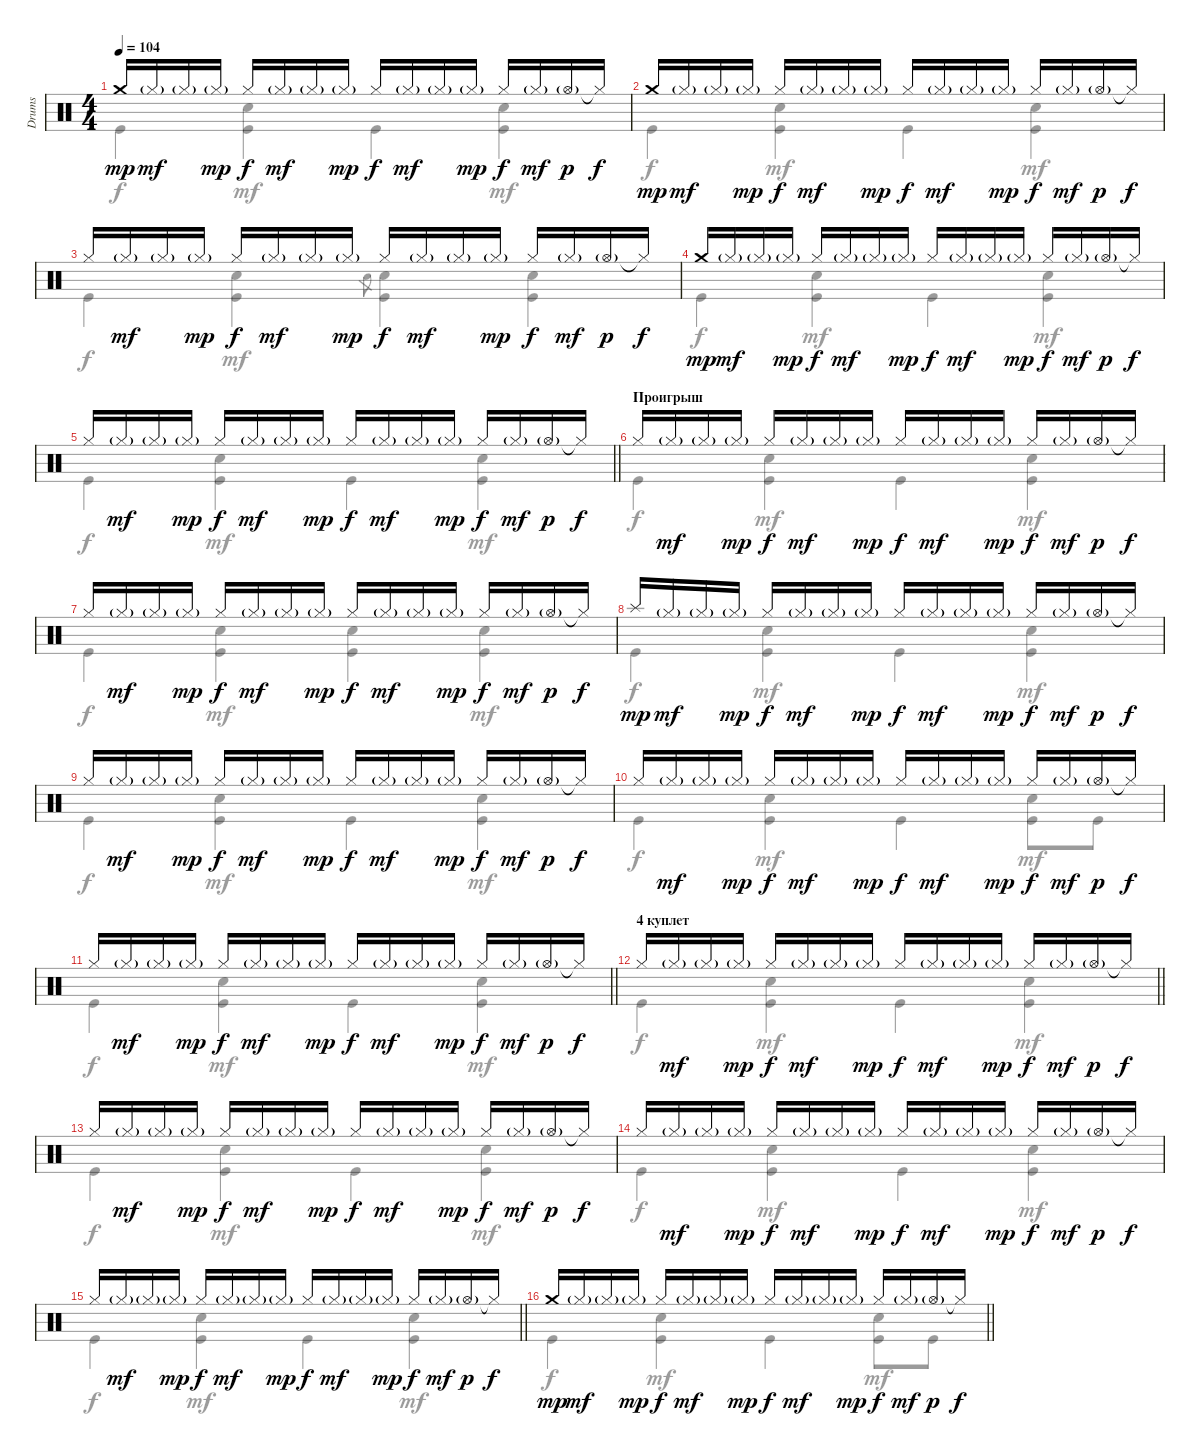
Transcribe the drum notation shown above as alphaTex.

\track ("Drums" "Drums") {instrument percussion}
\staff {score}
\articulation defaults
\voice
\ts (4 4)
\tempo 104
\clef neutral
\ks c "Crash medium (hit)".16{dy mp} "Hi-Hat (closed)"{g}.16{dy mf} "Hi-Hat (closed)"{g}.16 "Hi-Hat (closed)"{g}.16{dy mp} "Hi-Hat (closed)".16{dy f} "Hi-Hat (closed)"{g}.16{dy mf} "Hi-Hat (closed)"{g}.16 "Hi-Hat (closed)"{g}.16{dy mp} "Hi-Hat (closed)".16{dy f} "Hi-Hat (closed)"{g}.16{dy mf} "Hi-Hat (closed)"{g}.16 "Hi-Hat (closed)"{g}.16{dy mp} "Hi-Hat (closed)".16{dy f} "Hi-Hat (closed)"{g}.16{dy mf} "Hi-Hat (open)"{g}.16{dy p} "Hi-Hat (closed)"{t}.16{dy f}
|
"Crash medium (hit)".16{dy mp} "Hi-Hat (closed)"{g}.16{dy mf} "Hi-Hat (closed)"{g}.16 "Hi-Hat (closed)"{g}.16{dy mp} "Hi-Hat (closed)".16{dy f} "Hi-Hat (closed)"{g}.16{dy mf} "Hi-Hat (closed)"{g}.16 "Hi-Hat (closed)"{g}.16{dy mp} "Hi-Hat (closed)".16{dy f} "Hi-Hat (closed)"{g}.16{dy mf} "Hi-Hat (closed)"{g}.16 "Hi-Hat (closed)"{g}.16{dy mp} "Hi-Hat (closed)".16{dy f} "Hi-Hat (closed)"{g}.16{dy mf} "Hi-Hat (open)"{g}.16{dy p} "Hi-Hat (closed)"{t}.16{dy f} |
"Hi-Hat (closed)".16 "Hi-Hat (closed)"{g}.16{dy mf} "Hi-Hat (closed)"{g}.16 "Hi-Hat (closed)"{g}.16{dy mp} "Hi-Hat (closed)".16{dy f} "Hi-Hat (closed)"{g}.16{dy mf} "Hi-Hat (closed)"{g}.16 "Hi-Hat (closed)"{g}.16{dy mp} "Hi-Hat (closed)".16{dy f} "Hi-Hat (closed)"{g}.16{dy mf} "Hi-Hat (closed)"{g}.16 "Hi-Hat (closed)"{g}.16{dy mp} "Hi-Hat (closed)".16{dy f} "Hi-Hat (closed)"{g}.16{dy mf} "Hi-Hat (open)"{g}.16{dy p} "Hi-Hat (closed)"{t}.16{dy f} |
"Crash medium (hit)".16{dy mp} "Hi-Hat (closed)"{g}.16{dy mf} "Hi-Hat (closed)"{g}.16 "Hi-Hat (closed)"{g}.16{dy mp} "Hi-Hat (closed)".16{dy f} "Hi-Hat (closed)"{g}.16{dy mf} "Hi-Hat (closed)"{g}.16 "Hi-Hat (closed)"{g}.16{dy mp} "Hi-Hat (closed)".16{dy f} "Hi-Hat (closed)"{g}.16{dy mf} "Hi-Hat (closed)"{g}.16 "Hi-Hat (closed)"{g}.16{dy mp} "Hi-Hat (closed)".16{dy f} "Hi-Hat (closed)"{g}.16{dy mf} "Hi-Hat (open)"{g}.16{dy p} "Hi-Hat (closed)"{t}.16{dy f} |
\barLineRight lightlight "Hi-Hat (closed)".16 "Hi-Hat (closed)"{g}.16{dy mf} "Hi-Hat (closed)"{g}.16 "Hi-Hat (closed)"{g}.16{dy mp} "Hi-Hat (closed)".16{dy f} "Hi-Hat (closed)"{g}.16{dy mf} "Hi-Hat (closed)"{g}.16 "Hi-Hat (closed)"{g}.16{dy mp} "Hi-Hat (closed)".16{dy f} "Hi-Hat (closed)"{g}.16{dy mf} "Hi-Hat (closed)"{g}.16 "Hi-Hat (closed)"{g}.16{dy mp} "Hi-Hat (closed)".16{dy f} "Hi-Hat (closed)"{g}.16{dy mf} "Hi-Hat (open)"{g}.16{dy p} "Hi-Hat (closed)"{t}.16{dy f}
|
\section ("" "Проигрыш")
"Hi-Hat (closed)".16 "Hi-Hat (closed)"{g}.16{dy mf} "Hi-Hat (closed)"{g}.16 "Hi-Hat (closed)"{g}.16{dy mp} "Hi-Hat (closed)".16{dy f} "Hi-Hat (closed)"{g}.16{dy mf} "Hi-Hat (closed)"{g}.16 "Hi-Hat (closed)"{g}.16{dy mp} "Hi-Hat (closed)".16{dy f} "Hi-Hat (closed)"{g}.16{dy mf} "Hi-Hat (closed)"{g}.16 "Hi-Hat (closed)"{g}.16{dy mp} "Hi-Hat (closed)".16{dy f} "Hi-Hat (closed)"{g}.16{dy mf} "Hi-Hat (open)"{g}.16{dy p} "Hi-Hat (closed)"{t}.16{dy f} |
"Hi-Hat (closed)".16 "Hi-Hat (closed)"{g}.16{dy mf} "Hi-Hat (closed)"{g}.16 "Hi-Hat (closed)"{g}.16{dy mp} "Hi-Hat (closed)".16{dy f} "Hi-Hat (closed)"{g}.16{dy mf} "Hi-Hat (closed)"{g}.16 "Hi-Hat (closed)"{g}.16{dy mp} "Hi-Hat (closed)".16{dy f} "Hi-Hat (closed)"{g}.16{dy mf} "Hi-Hat (closed)"{g}.16 "Hi-Hat (closed)"{g}.16{dy mp} "Hi-Hat (closed)".16{dy f} "Hi-Hat (closed)"{g}.16{dy mf} "Hi-Hat (open)"{g}.16{dy p} "Hi-Hat (closed)"{t}.16{dy f} |
"Splash (hit)".16{dy mp} "Hi-Hat (closed)"{g}.16{dy mf} "Hi-Hat (closed)"{g}.16 "Hi-Hat (closed)"{g}.16{dy mp} "Hi-Hat (closed)".16{dy f} "Hi-Hat (closed)"{g}.16{dy mf} "Hi-Hat (closed)"{g}.16 "Hi-Hat (closed)"{g}.16{dy mp} "Hi-Hat (closed)".16{dy f} "Hi-Hat (closed)"{g}.16{dy mf} "Hi-Hat (closed)"{g}.16 "Hi-Hat (closed)"{g}.16{dy mp} "Hi-Hat (closed)".16{dy f} "Hi-Hat (closed)"{g}.16{dy mf} "Hi-Hat (open)"{g}.16{dy p} "Hi-Hat (closed)"{t}.16{dy f} |
"Hi-Hat (closed)".16 "Hi-Hat (closed)"{g}.16{dy mf} "Hi-Hat (closed)"{g}.16 "Hi-Hat (closed)"{g}.16{dy mp} "Hi-Hat (closed)".16{dy f} "Hi-Hat (closed)"{g}.16{dy mf} "Hi-Hat (closed)"{g}.16 "Hi-Hat (closed)"{g}.16{dy mp} "Hi-Hat (closed)".16{dy f} "Hi-Hat (closed)"{g}.16{dy mf} "Hi-Hat (closed)"{g}.16 "Hi-Hat (closed)"{g}.16{dy mp} "Hi-Hat (closed)".16{dy f} "Hi-Hat (closed)"{g}.16{dy mf} "Hi-Hat (open)"{g}.16{dy p} "Hi-Hat (closed)"{t}.16{dy f} |
"Hi-Hat (closed)".16 "Hi-Hat (closed)"{g}.16{dy mf} "Hi-Hat (closed)"{g}.16 "Hi-Hat (closed)"{g}.16{dy mp} "Hi-Hat (closed)".16{dy f} "Hi-Hat (closed)"{g}.16{dy mf} "Hi-Hat (closed)"{g}.16 "Hi-Hat (closed)"{g}.16{dy mp} "Hi-Hat (closed)".16{dy f} "Hi-Hat (closed)"{g}.16{dy mf} "Hi-Hat (closed)"{g}.16 "Hi-Hat (closed)"{g}.16{dy mp} "Hi-Hat (closed)".16{dy f} "Hi-Hat (closed)"{g}.16{dy mf} "Hi-Hat (open)"{g}.16{dy p} "Hi-Hat (closed)"{t}.16{dy f} |
\barLineRight lightlight "Hi-Hat (closed)".16 "Hi-Hat (closed)"{g}.16{dy mf} "Hi-Hat (closed)"{g}.16 "Hi-Hat (closed)"{g}.16{dy mp} "Hi-Hat (closed)".16{dy f} "Hi-Hat (closed)"{g}.16{dy mf} "Hi-Hat (closed)"{g}.16 "Hi-Hat (closed)"{g}.16{dy mp} "Hi-Hat (closed)".16{dy f} "Hi-Hat (closed)"{g}.16{dy mf} "Hi-Hat (closed)"{g}.16 "Hi-Hat (closed)"{g}.16{dy mp} "Hi-Hat (closed)".16{dy f} "Hi-Hat (closed)"{g}.16{dy mf} "Hi-Hat (open)"{g}.16{dy p} "Hi-Hat (closed)"{t}.16{dy f}
|
\section ("" "4 куплет")
\barLineRight lightlight "Hi-Hat (closed)".16 "Hi-Hat (closed)"{g}.16{dy mf} "Hi-Hat (closed)"{g}.16 "Hi-Hat (closed)"{g}.16{dy mp} "Hi-Hat (closed)".16{dy f} "Hi-Hat (closed)"{g}.16{dy mf} "Hi-Hat (closed)"{g}.16 "Hi-Hat (closed)"{g}.16{dy mp} "Hi-Hat (closed)".16{dy f} "Hi-Hat (closed)"{g}.16{dy mf} "Hi-Hat (closed)"{g}.16 "Hi-Hat (closed)"{g}.16{dy mp} "Hi-Hat (closed)".16{dy f} "Hi-Hat (closed)"{g}.16{dy mf} "Hi-Hat (open)"{g}.16{dy p} "Hi-Hat (closed)"{t}.16{dy f}
|
"Hi-Hat (closed)".16 "Hi-Hat (closed)"{g}.16{dy mf} "Hi-Hat (closed)"{g}.16 "Hi-Hat (closed)"{g}.16{dy mp} "Hi-Hat (closed)".16{dy f} "Hi-Hat (closed)"{g}.16{dy mf} "Hi-Hat (closed)"{g}.16 "Hi-Hat (closed)"{g}.16{dy mp} "Hi-Hat (closed)".16{dy f} "Hi-Hat (closed)"{g}.16{dy mf} "Hi-Hat (closed)"{g}.16 "Hi-Hat (closed)"{g}.16{dy mp} "Hi-Hat (closed)".16{dy f} "Hi-Hat (closed)"{g}.16{dy mf} "Hi-Hat (open)"{g}.16{dy p} "Hi-Hat (closed)"{t}.16{dy f} |
"Hi-Hat (closed)".16 "Hi-Hat (closed)"{g}.16{dy mf} "Hi-Hat (closed)"{g}.16 "Hi-Hat (closed)"{g}.16{dy mp} "Hi-Hat (closed)".16{dy f} "Hi-Hat (closed)"{g}.16{dy mf} "Hi-Hat (closed)"{g}.16 "Hi-Hat (closed)"{g}.16{dy mp} "Hi-Hat (closed)".16{dy f} "Hi-Hat (closed)"{g}.16{dy mf} "Hi-Hat (closed)"{g}.16 "Hi-Hat (closed)"{g}.16{dy mp} "Hi-Hat (closed)".16{dy f} "Hi-Hat (closed)"{g}.16{dy mf} "Hi-Hat (open)"{g}.16{dy p} "Hi-Hat (closed)"{t}.16{dy f} |
\barLineRight lightlight "Hi-Hat (closed)".16 "Hi-Hat (closed)"{g}.16{dy mf} "Hi-Hat (closed)"{g}.16 "Hi-Hat (closed)"{g}.16{dy mp} "Hi-Hat (closed)".16{dy f} "Hi-Hat (closed)"{g}.16{dy mf} "Hi-Hat (closed)"{g}.16 "Hi-Hat (closed)"{g}.16{dy mp} "Hi-Hat (closed)".16{dy f} "Hi-Hat (closed)"{g}.16{dy mf} "Hi-Hat (closed)"{g}.16 "Hi-Hat (closed)"{g}.16{dy mp} "Hi-Hat (closed)".16{dy f} "Hi-Hat (closed)"{g}.16{dy mf} "Hi-Hat (open)"{g}.16{dy p} "Hi-Hat (closed)"{t}.16{dy f}
|
\barLineRight lightlight "Crash medium (hit)".16{dy mp} "Hi-Hat (closed)"{g}.16{dy mf} "Hi-Hat (closed)"{g}.16 "Hi-Hat (closed)"{g}.16{dy mp} "Hi-Hat (closed)".16{dy f} "Hi-Hat (closed)"{g}.16{dy mf} "Hi-Hat (closed)"{g}.16 "Hi-Hat (closed)"{g}.16{dy mp} "Hi-Hat (closed)".16{dy f} "Hi-Hat (closed)"{g}.16{dy mf} "Hi-Hat (closed)"{g}.16 "Hi-Hat (closed)"{g}.16{dy mp} "Hi-Hat (closed)".16{dy f} "Hi-Hat (closed)"{g}.16{dy mf} "Hi-Hat (open)"{g}.16{dy p} "Hi-Hat (closed)"{t}.16{dy f}
\voice
\clef neutral
\ottava regular
\simile none
\ks c "Kick (hit)".4{dy f}
("Snare (hit) 2" "Kick (hit)").4{dy mf} "Kick (hit)".4{dy f} ("Snare (hit) 2" "Kick (hit)").4{dy mf} |
"Kick (hit)".4{dy f} ("Snare (hit) 2" "Kick (hit)").4{dy mf} "Kick (hit)".4{dy f} ("Snare (hit) 2" "Kick (hit)").4{dy mf} |
"Kick (hit)".4{dy f} ("Snare (hit) 2" "Kick (hit)").4{dy mf} "Snare (hit) 2".8{gr} ("Snare (hit) 2" "Kick (hit)").4 ("Snare (hit) 2" "Kick (hit)").4 |
"Kick (hit)".4{dy f} ("Snare (hit) 2" "Kick (hit)").4{dy mf} "Kick (hit)".4{dy f} ("Snare (hit) 2" "Kick (hit)").4{dy mf} |
\barLineRight lightlight "Kick (hit)".4{dy f}
("Snare (hit) 2" "Kick (hit)").4{dy mf} "Kick (hit)".4{dy f} ("Snare (hit) 2" "Kick (hit)").4{dy mf} |
"Kick (hit)".4{dy f} ("Snare (hit) 2" "Kick (hit)").4{dy mf} "Kick (hit)".4{dy f} ("Snare (hit) 2" "Kick (hit)").4{dy mf} |
"Kick (hit)".4{dy f} ("Snare (hit) 2" "Kick (hit)").4{dy mf} ("Snare (hit) 2" "Kick (hit)").4{dy f} ("Snare (hit) 2" "Kick (hit)").4{dy mf} |
"Kick (hit)".4{dy f} ("Snare (hit) 2" "Kick (hit)").4{dy mf} "Kick (hit)".4{dy f} ("Snare (hit) 2" "Kick (hit)").4{dy mf} |
"Kick (hit)".4{dy f} ("Snare (hit) 2" "Kick (hit)").4{dy mf} "Kick (hit)".4{dy f} ("Snare (hit) 2" "Kick (hit)").4{dy mf} |
"Kick (hit)".4{dy f} ("Snare (hit) 2" "Kick (hit)").4{dy mf} "Kick (hit)".4{dy f} ("Snare (hit) 2" "Kick (hit)").8{dy mf} "Kick (hit)".8 |
\barLineRight lightlight "Kick (hit)".4{dy f}
("Snare (hit) 2" "Kick (hit)").4{dy mf} "Kick (hit)".4{dy f} ("Snare (hit) 2" "Kick (hit)").4{dy mf} |
\barLineRight lightlight "Kick (hit)".4{dy f}
("Snare (hit) 2" "Kick (hit)").4{dy mf} "Kick (hit)".4{dy f} ("Snare (hit) 2" "Kick (hit)").4{dy mf} |
"Kick (hit)".4{dy f} ("Snare (hit) 2" "Kick (hit)").4{dy mf} "Kick (hit)".4{dy f} ("Snare (hit) 2" "Kick (hit)").4{dy mf} |
"Kick (hit)".4{dy f} ("Snare (hit) 2" "Kick (hit)").4{dy mf} "Kick (hit)".4{dy f} ("Snare (hit) 2" "Kick (hit)").4{dy mf} |
\barLineRight lightlight "Kick (hit)".4{dy f}
("Snare (hit) 2" "Kick (hit)").4{dy mf} "Kick (hit)".4{dy f} ("Snare (hit) 2" "Kick (hit)").4{dy mf} |
\barLineRight lightlight "Kick (hit)".4{dy f}
("Snare (hit) 2" "Kick (hit)").4{dy mf} "Kick (hit)".4{dy f} ("Snare (hit) 2" "Kick (hit)").8{dy mf} "Kick (hit)".8
